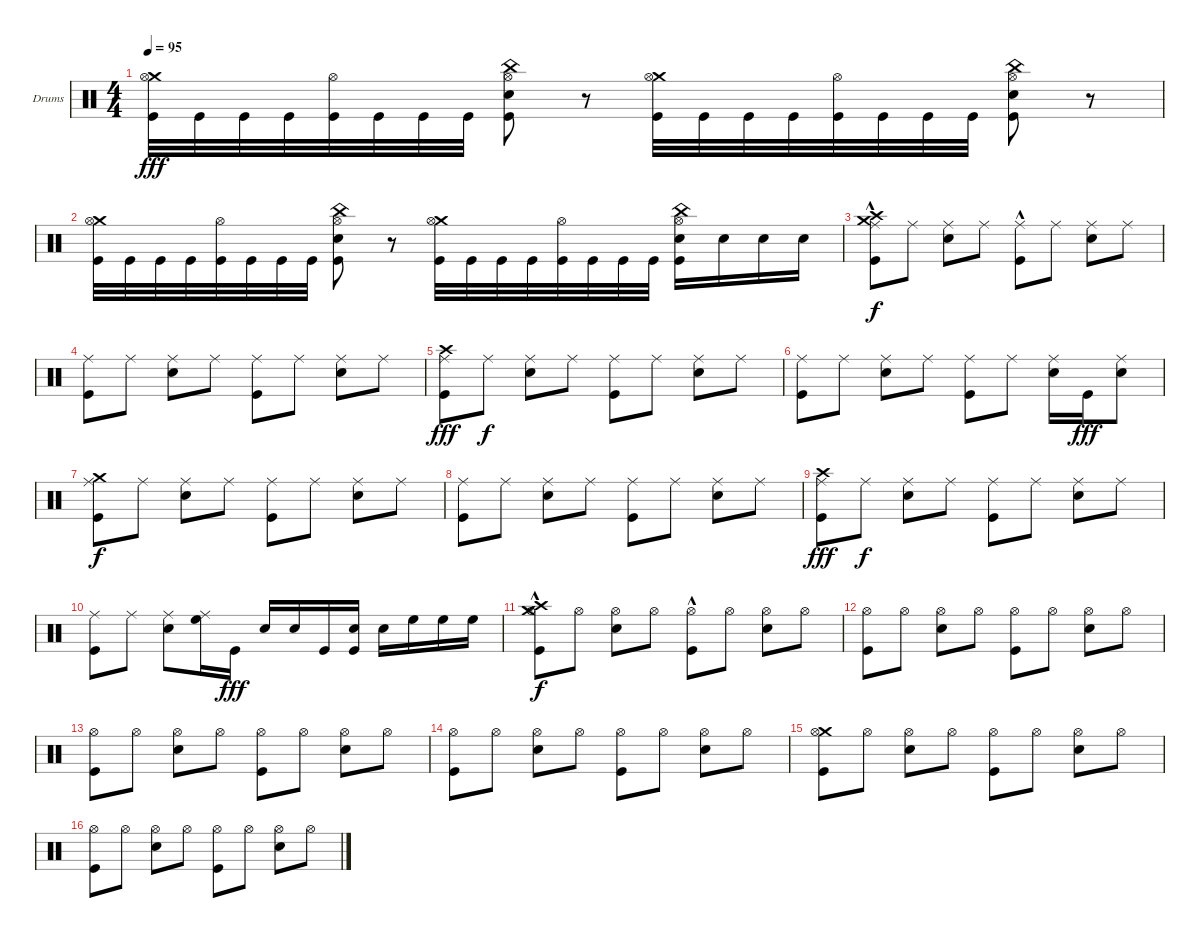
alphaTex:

\bracketExtendMode groupsimilarinstruments
\firstSystemTrackNameOrientation horizontal
\otherSystemsTrackNameOrientation horizontal
\track ("Drumkit" "Drums") {solo instrument percussion}
\staff {score}
\articulation defaults
\ts (4 4)
\tempo 95
\clef neutral
\scale
0.5
\ks c
("Crash medium (hit)" "Hi-Hat (open)" "Kick (hit)").32{dy fff} "Kick (hit)".32 "Kick (hit)".32 "Kick (hit)".32 ("Hi-Hat (open)" "Kick (hit)").32 "Kick (hit)".32 "Kick (hit)".32 "Kick (hit)".32 ("China (hit)" "Hi-Hat (open)" "Snare (hit) 2" "Kick (hit)").8 r.8 ("Crash medium (hit)" "Hi-Hat (open)" "Kick (hit)").32 "Kick (hit)".32 "Kick (hit)".32 "Kick (hit)".32 ("Hi-Hat (open)" "Kick (hit)").32 "Kick (hit)".32 "Kick (hit)".32 "Kick (hit)".32 ("China (hit)" "Hi-Hat (open)" "Snare (hit) 2" "Kick (hit)").8 r.8 |
\scale
0.5 ("Crash medium (hit)" "Hi-Hat (open)" "Kick (hit)").32 "Kick (hit)".32 "Kick (hit)".32 "Kick (hit)".32 ("Hi-Hat (open)" "Kick (hit)").32 "Kick (hit)".32 "Kick (hit)".32 "Kick (hit)".32 ("China (hit)" "Hi-Hat (open)" "Snare (hit) 2" "Kick (hit)").8 r.8 ("Crash medium (hit)" "Hi-Hat (open)" "Kick (hit)").32 "Kick (hit)".32 "Kick (hit)".32 "Kick (hit)".32 ("Hi-Hat (open)" "Kick (hit)").32 "Kick (hit)".32 "Kick (hit)".32 "Kick (hit)".32 ("China (hit)" "Hi-Hat (open)" "Snare (hit) 2" "Kick (hit)").16 "Snare (hit) 2".16 "Snare (hit) 2".16 "Snare (hit) 2".16 |
\scale
0.5 ("Crash medium (hit)" "Crash high (hit)" "Ride (middle)" "Kick (hit)"{hac}).8{dy f} "Ride (middle)".8 ("Ride (middle)" "Snare (hit) 2").8 "Ride (middle)".8 ("Ride (middle)" "Kick (hit)"{hac}).8 "Ride (middle)".8 ("Ride (middle)" "Snare (hit) 2").8 "Ride (middle)".8 |
\scale
0.5 ("Ride (middle)" "Kick (hit)").8 "Ride (middle)".8 ("Ride (middle)" "Snare (hit) 2").8 "Ride (middle)".8 ("Ride (middle)" "Kick (hit)").8 "Ride (middle)".8 ("Ride (middle)" "Snare (hit) 2").8 "Ride (middle)".8 |
\scale
0.5 ("Crash high (hit)" "Ride (middle)" "Kick (hit)").8{dy fff} "Ride (middle)".8{dy f} ("Ride (middle)" "Snare (hit) 2").8 "Ride (middle)".8 ("Ride (middle)" "Kick (hit)").8 "Ride (middle)".8 ("Ride (middle)" "Snare (hit) 2").8 "Ride (middle)".8 |
\scale
0.5 ("Ride (middle)" "Kick (hit)").8 "Ride (middle)".8 ("Ride (middle)" "Snare (hit) 2").8 "Ride (middle)".8 ("Ride (middle)" "Kick (hit)").8 "Ride (middle)".8 ("Ride (middle)" "Snare (hit) 2").16 "Kick (hit)".16{dy fff} ("Ride (middle)" "Snare (hit) 2").8 |
\scale
0.5 ("Crash medium (hit)" "Ride (middle)" "Kick (hit)").8{dy f} "Ride (middle)".8 ("Ride (middle)" "Snare (hit) 2").8 "Ride (middle)".8 ("Ride (middle)" "Kick (hit)").8 "Ride (middle)".8 ("Ride (middle)" "Snare (hit) 2").8 "Ride (middle)".8 |
\scale
0.5 ("Ride (middle)" "Kick (hit)").8 "Ride (middle)".8 ("Ride (middle)" "Snare (hit) 2").8 "Ride (middle)".8 ("Ride (middle)" "Kick (hit)").8 "Ride (middle)".8 ("Ride (middle)" "Snare (hit) 2").8 "Ride (middle)".8 |
\scale
0.5 ("Crash high (hit)" "Ride (middle)" "Kick (hit)").8{dy fff} "Ride (middle)".8{dy f} ("Ride (middle)" "Snare (hit) 2").8 "Ride (middle)".8 ("Ride (middle)" "Kick (hit)").8 "Ride (middle)".8 ("Ride (middle)" "Snare (hit) 2").8 "Ride (middle)".8 |
\scale
0.5 ("Ride (middle)" "Kick (hit)").8 "Ride (middle)".8 ("Ride (middle)" "Snare (hit) 2").8 ("Ride (middle)" "High Floor Tom (hit)").16 "Kick (hit)".16{dy fff} "Snare (hit) 2".16 "Snare (hit) 2".16 "Kick (hit)".16 ("Snare (hit) 2" "Kick (hit)").16 "Snare (hit) 2".16 "High Floor Tom (hit)".16 "High Floor Tom (hit)".16 "High Floor Tom (hit)".16 |
\scale
0.5 ("Crash medium (hit)" "Crash high (hit)" "Hi-Hat (open)" "Kick (hit)"{hac}).8{dy f} "Hi-Hat (open)".8 ("Hi-Hat (open)" "Snare (hit) 2").8 "Hi-Hat (open)".8 ("Hi-Hat (open)" "Kick (hit)"{hac}).8 "Hi-Hat (open)".8 ("Hi-Hat (open)" "Snare (hit) 2").8 "Hi-Hat (open)".8 |
\scale
0.5 ("Hi-Hat (open)" "Kick (hit)").8 "Hi-Hat (open)".8 ("Hi-Hat (open)" "Snare (hit) 2").8 "Hi-Hat (open)".8 ("Hi-Hat (open)" "Kick (hit)").8 "Hi-Hat (open)".8 ("Hi-Hat (open)" "Snare (hit) 2").8 "Hi-Hat (open)".8 |
\scale
0.5 ("Hi-Hat (open)" "Kick (hit)").8 "Hi-Hat (open)".8 ("Hi-Hat (open)" "Snare (hit) 2").8 "Hi-Hat (open)".8 ("Hi-Hat (open)" "Kick (hit)").8 "Hi-Hat (open)".8 ("Hi-Hat (open)" "Snare (hit) 2").8 "Hi-Hat (open)".8 |
\scale
0.5 ("Hi-Hat (open)" "Kick (hit)").8 "Hi-Hat (open)".8 ("Hi-Hat (open)" "Snare (hit) 2").8 "Hi-Hat (open)".8 ("Hi-Hat (open)" "Kick (hit)").8 "Hi-Hat (open)".8 ("Hi-Hat (open)" "Snare (hit) 2").8 "Hi-Hat (open)".8 |
\scale
0.5 ("Crash medium (hit)" "Hi-Hat (open)" "Kick (hit)").8 "Hi-Hat (open)".8 ("Hi-Hat (open)" "Snare (hit) 2").8 "Hi-Hat (open)".8 ("Hi-Hat (open)" "Kick (hit)").8 "Hi-Hat (open)".8 ("Hi-Hat (open)" "Snare (hit) 2").8 "Hi-Hat (open)".8 |
\scale
0.5 ("Hi-Hat (open)" "Kick (hit)").8 "Hi-Hat (open)".8 ("Hi-Hat (open)" "Snare (hit) 2").8 "Hi-Hat (open)".8 ("Hi-Hat (open)" "Kick (hit)").8 "Hi-Hat (open)".8 ("Hi-Hat (open)" "Snare (hit) 2").8 "Hi-Hat (open)".8
